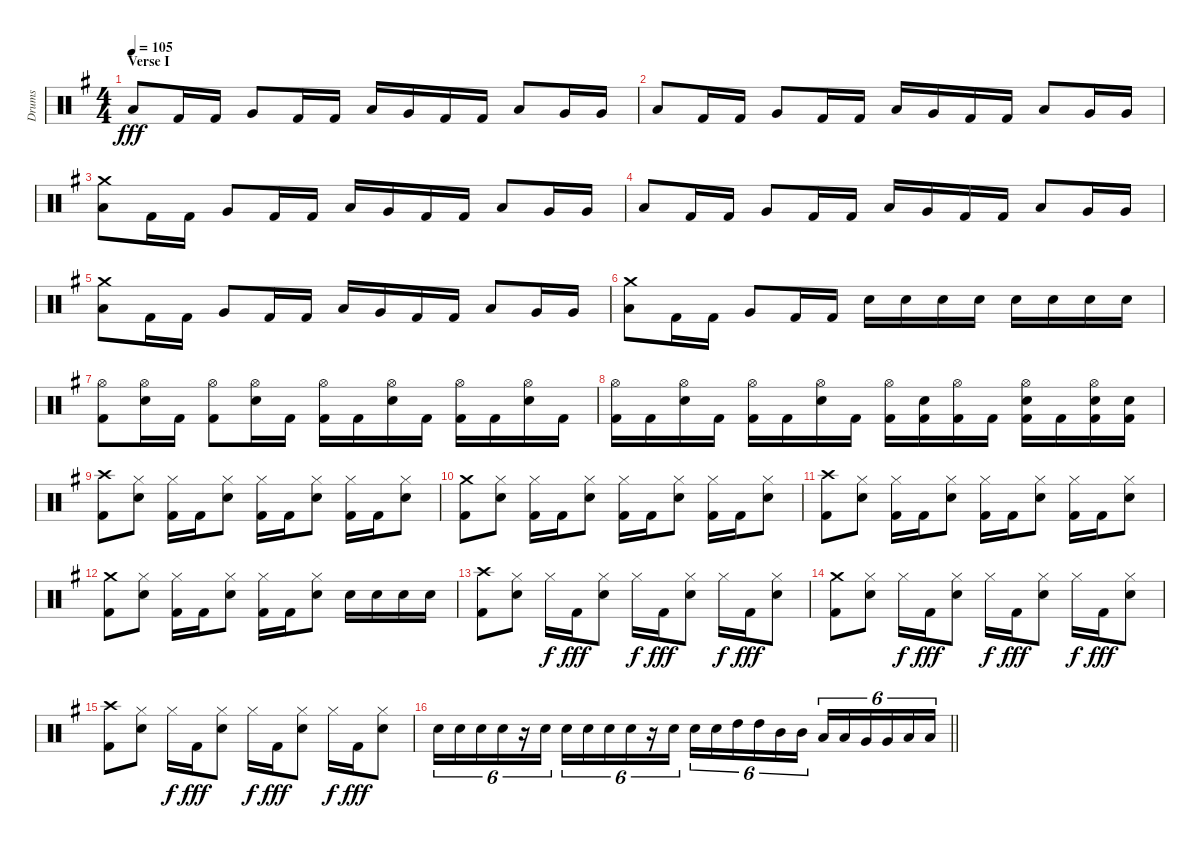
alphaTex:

\track ("Drums" "Drums") {instrument percussion}
\staff {score}
\articulation defaults
\ts (4 4)
\section ("" "Verse I")
\tempo 105
\clef neutral
\ks eminor "Low Tom (hit)".8{dy fff} "Kick (hit) 2".16 "Kick (hit) 2".16 "Very Low Tom (hit)".8 "Kick (hit) 2".16 "Kick (hit) 2".16 "Low Tom (hit)".16 "Very Low Tom (hit)".16 "Kick (hit) 2".16 "Kick (hit) 2".16 "Low Tom (hit)".8 "Very Low Tom (hit)".16 "Very Low Tom (hit)".16
|
"Low Tom (hit)".8 "Kick (hit) 2".16 "Kick (hit) 2".16 "Very Low Tom (hit)".8 "Kick (hit) 2".16 "Kick (hit) 2".16 "Low Tom (hit)".16 "Very Low Tom (hit)".16 "Kick (hit) 2".16 "Kick (hit) 2".16 "Low Tom (hit)".8 "Very Low Tom (hit)".16 "Very Low Tom (hit)".16 |
("Crash medium (hit)" "Low Tom (hit)").8 "Kick (hit) 2".16 "Kick (hit) 2".16 "Very Low Tom (hit)".8 "Kick (hit) 2".16 "Kick (hit) 2".16 "Low Tom (hit)".16 "Very Low Tom (hit)".16 "Kick (hit) 2".16 "Kick (hit) 2".16 "Low Tom (hit)".8 "Very Low Tom (hit)".16 "Very Low Tom (hit)".16 |
"Low Tom (hit)".8 "Kick (hit) 2".16 "Kick (hit) 2".16 "Very Low Tom (hit)".8 "Kick (hit) 2".16 "Kick (hit) 2".16 "Low Tom (hit)".16 "Very Low Tom (hit)".16 "Kick (hit) 2".16 "Kick (hit) 2".16 "Low Tom (hit)".8 "Very Low Tom (hit)".16 "Very Low Tom (hit)".16 |
("Crash medium (hit)" "Low Tom (hit)").8 "Kick (hit) 2".16 "Kick (hit) 2".16 "Very Low Tom (hit)".8 "Kick (hit) 2".16 "Kick (hit) 2".16 "Low Tom (hit)".16 "Very Low Tom (hit)".16 "Kick (hit) 2".16 "Kick (hit) 2".16 "Low Tom (hit)".8 "Very Low Tom (hit)".16 "Very Low Tom (hit)".16 |
("Crash medium (hit)" "Low Tom (hit)").8 "Kick (hit) 2".16 "Kick (hit) 2".16 "Very Low Tom (hit)".8 "Kick (hit) 2".16 "Kick (hit) 2".16 "Snare (hit) 2".16 "Snare (hit) 2".16 "Snare (hit) 2".16 "Snare (hit) 2".16 "Snare (hit) 2".16 "Snare (hit) 2".16 "Snare (hit) 2".16 "Snare (hit) 2".16 |
("Hi-Hat (open)" "Kick (hit) 2").8 ("Hi-Hat (open)" "Snare (hit) 2").16 "Kick (hit) 2".16 ("Hi-Hat (open)" "Kick (hit) 2").8 ("Hi-Hat (open)" "Snare (hit) 2").16 "Kick (hit) 2".16 ("Hi-Hat (open)" "Kick (hit) 2").16 "Kick (hit) 2".16 ("Hi-Hat (open)" "Snare (hit) 2").16 "Kick (hit) 2".16 ("Hi-Hat (open)" "Kick (hit) 2").16 "Kick (hit) 2".16 ("Hi-Hat (open)" "Snare (hit) 2").16 "Kick (hit) 2".16 |
("Hi-Hat (open)" "Kick (hit) 2").16 "Kick (hit) 2".16 ("Hi-Hat (open)" "Snare (hit) 2").16 "Kick (hit) 2".16 ("Hi-Hat (open)" "Kick (hit) 2").16 "Kick (hit) 2".16 ("Hi-Hat (open)" "Snare (hit) 2").16 "Kick (hit) 2".16 ("Hi-Hat (open)" "Kick (hit) 2").16 ("Snare (hit) 2" "Kick (hit) 2").16 ("Hi-Hat (open)" "Kick (hit) 2").16 "Kick (hit) 2".16 ("Hi-Hat (open)" "Snare (hit) 2" "Kick (hit) 2").16 "Kick (hit) 2".16 ("Hi-Hat (open)" "Snare (hit) 2" "Kick (hit) 2").16 ("Snare (hit) 2" "Kick (hit) 2").16 |
("Crash high (hit)" "Kick (hit) 2").8 ("Hi-Hat (closed)" "Snare (hit) 2").8 ("Hi-Hat (closed)" "Kick (hit) 2").16 "Kick (hit) 2".16 ("Hi-Hat (closed)" "Snare (hit) 2").8 ("Hi-Hat (closed)" "Kick (hit) 2").16 "Kick (hit) 2".16 ("Hi-Hat (closed)" "Snare (hit) 2").8 ("Hi-Hat (closed)" "Kick (hit) 2").16 "Kick (hit) 2".16 ("Hi-Hat (closed)" "Snare (hit) 2").8 |
("Crash medium (hit)" "Kick (hit) 2").8 ("Hi-Hat (closed)" "Snare (hit) 2").8 ("Hi-Hat (closed)" "Kick (hit) 2").16 "Kick (hit) 2".16 ("Hi-Hat (closed)" "Snare (hit) 2").8 ("Hi-Hat (closed)" "Kick (hit) 2").16 "Kick (hit) 2".16 ("Hi-Hat (closed)" "Snare (hit) 2").8 ("Hi-Hat (closed)" "Kick (hit) 2").16 "Kick (hit) 2".16 ("Hi-Hat (closed)" "Snare (hit) 2").8 |
("Crash high (hit)" "Kick (hit) 2").8 ("Hi-Hat (closed)" "Snare (hit) 2").8 ("Hi-Hat (closed)" "Kick (hit) 2").16 "Kick (hit) 2".16 ("Hi-Hat (closed)" "Snare (hit) 2").8 ("Hi-Hat (closed)" "Kick (hit) 2").16 "Kick (hit) 2".16 ("Hi-Hat (closed)" "Snare (hit) 2").8 ("Hi-Hat (closed)" "Kick (hit) 2").16 "Kick (hit) 2".16 ("Hi-Hat (closed)" "Snare (hit) 2").8 |
("Crash medium (hit)" "Kick (hit) 2").8 ("Hi-Hat (closed)" "Snare (hit) 2").8 ("Hi-Hat (closed)" "Kick (hit) 2").16 "Kick (hit) 2".16 ("Hi-Hat (closed)" "Snare (hit) 2").8 ("Hi-Hat (closed)" "Kick (hit) 2").16 "Kick (hit) 2".16 ("Hi-Hat (closed)" "Snare (hit) 2").8 "Snare (hit) 2".16 "Snare (hit) 2".16 "Snare (hit) 2".16 "Snare (hit) 2".16 |
("Crash high (hit)" "Kick (hit) 2").8 ("Hi-Hat (closed)" "Snare (hit) 2").8 "Hi-Hat (closed)".16{dy f} "Kick (hit) 2".16{dy fff} ("Hi-Hat (closed)" "Snare (hit) 2").8 "Hi-Hat (closed)".16{dy f} "Kick (hit) 2".16{dy fff} ("Hi-Hat (closed)" "Snare (hit) 2").8 "Hi-Hat (closed)".16{dy f} "Kick (hit) 2".16{dy fff} ("Hi-Hat (closed)" "Snare (hit) 2").8 |
("Crash medium (hit)" "Kick (hit) 2").8 ("Hi-Hat (closed)" "Snare (hit) 2").8 "Hi-Hat (closed)".16{dy f} "Kick (hit) 2".16{dy fff} ("Hi-Hat (closed)" "Snare (hit) 2").8 "Hi-Hat (closed)".16{dy f} "Kick (hit) 2".16{dy fff} ("Hi-Hat (closed)" "Snare (hit) 2").8 "Hi-Hat (closed)".16{dy f} "Kick (hit) 2".16{dy fff} ("Hi-Hat (closed)" "Snare (hit) 2").8 |
("Crash high (hit)" "Kick (hit) 2").8 ("Hi-Hat (closed)" "Snare (hit) 2").8 "Hi-Hat (closed)".16{dy f} "Kick (hit) 2".16{dy fff} ("Hi-Hat (closed)" "Snare (hit) 2").8 "Hi-Hat (closed)".16{dy f} "Kick (hit) 2".16{dy fff} ("Hi-Hat (closed)" "Snare (hit) 2").8 "Hi-Hat (closed)".16{dy f} "Kick (hit) 2".16{dy fff} ("Hi-Hat (closed)" "Snare (hit) 2").8 |
\barLineRight lightlight "Snare (hit) 2".16{tu (6 4)} "Snare (hit) 2".16{tu (6 4)} "Snare (hit) 2".16{tu (6 4)} "Snare (hit) 2".16{tu (6 4)}
r.16{tu (6 4)} "Snare (hit) 2".16{tu (6 4)} "Snare (hit) 2".16{tu (6 4)} "Snare (hit) 2".16{tu (6 4)} "Snare (hit) 2".16{tu (6 4)} "Snare (hit) 2".16{tu (6 4)} r.16{tu (6 4)} "Snare (hit) 2".16{tu (6 4)} "Snare (hit) 2".16{tu (6 4)} "Snare (hit) 2".16{tu (6 4)} "High Tom (hit)".16{tu (6 4)} "High Tom (hit)".16{tu (6 4)} "Mid Tom (hit)".16{tu (6 4)} "Mid Tom (hit)".16{tu (6 4)} "Low Tom (hit)".16{tu (6 4)} "Low Tom (hit)".16{tu (6 4)} "Very Low Tom (hit)".16{tu (6 4)} "Very Low Tom (hit)".16{tu (6 4)} "Low Floor Tom (hit)".16{tu (6 4)} "Low Floor Tom (hit)".16{tu (6 4)}
